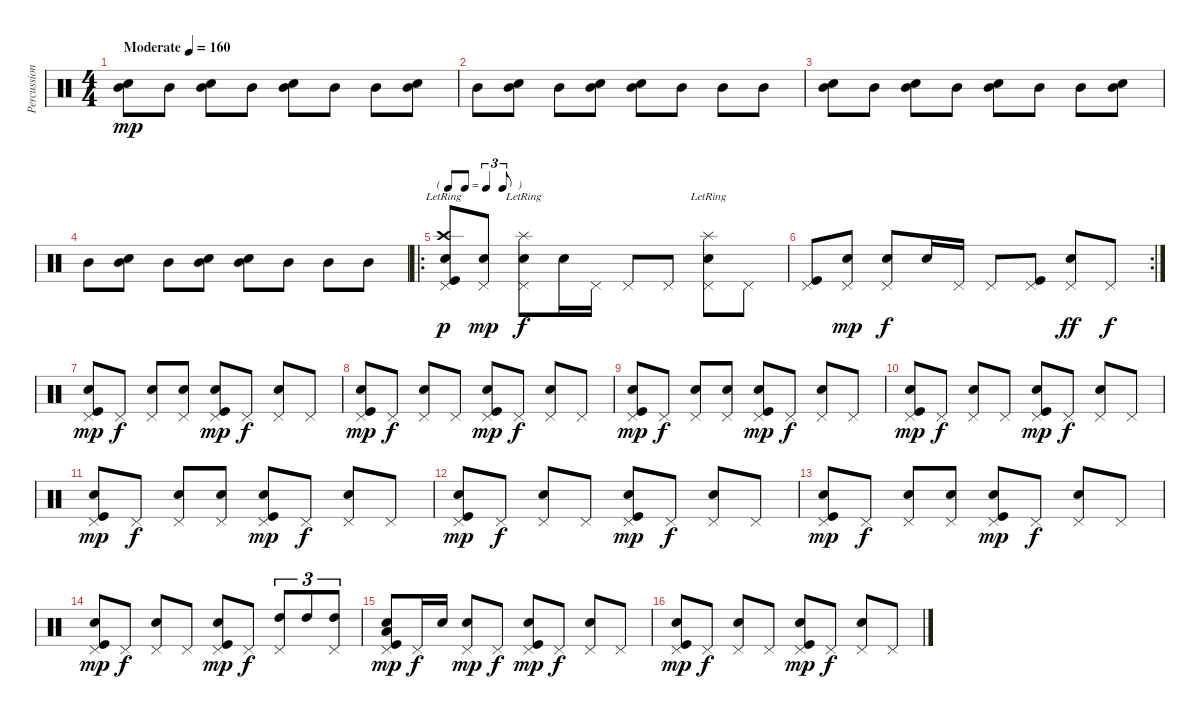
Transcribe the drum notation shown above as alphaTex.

\track ("Percussions" "Percussion") {instrument percussion}
\staff {score}
\articulation defaults
\ts (4 4)
\tempo (160 "Moderate")
\clef neutral
\ks c
("Mid Tom (hit)" "Snare (hit) 2").8{dy mp} "Mid Tom (hit)".8 ("Mid Tom (hit)" "Snare (hit) 2").8 "Mid Tom (hit)".8 ("Mid Tom (hit)" "Snare (hit) 2").8 "Mid Tom (hit)".8 "Mid Tom (hit)".8 ("Mid Tom (hit)" "Snare (hit) 2").8 |
"Mid Tom (hit)".8 ("Mid Tom (hit)" "Snare (hit) 2").8 "Mid Tom (hit)".8 ("Mid Tom (hit)" "Snare (hit) 2").8 ("Mid Tom (hit)" "Snare (hit) 2").8 "Mid Tom (hit)".8 "Mid Tom (hit)".8 "Mid Tom (hit)".8 |
("Mid Tom (hit)" "Snare (hit) 2").8 "Mid Tom (hit)".8 ("Mid Tom (hit)" "Snare (hit) 2").8 "Mid Tom (hit)".8 ("Mid Tom (hit)" "Snare (hit) 2").8 "Mid Tom (hit)".8 "Mid Tom (hit)".8 ("Mid Tom (hit)" "Snare (hit) 2").8 |
"Mid Tom (hit)".8 ("Mid Tom (hit)" "Snare (hit) 2").8 "Mid Tom (hit)".8 ("Mid Tom (hit)" "Snare (hit) 2").8 ("Mid Tom (hit)" "Snare (hit) 2").8 "Mid Tom (hit)".8 "Mid Tom (hit)".8 "Mid Tom (hit)".8 |
\ro
\tf triplet8th
("Pedal Hi-Hat (hit)" "Crash high (hit)"{lr} "Snare (hit) 2" "Kick (hit)").8{dy p} ("Pedal Hi-Hat (hit)" "Snare (hit) 2").8{dy mp} ("Pedal Hi-Hat (hit)" "Splash (hit)"{lr} "Snare (hit) 2").8{dy f} "Snare (hit) 2".16 "Pedal Hi-Hat (hit)".16 "Pedal Hi-Hat (hit)".8 "Pedal Hi-Hat (hit)".8 ("Pedal Hi-Hat (hit)" "Splash (hit)"{lr} "Snare (hit) 2").8 "Pedal Hi-Hat (hit)".8 |
\rc 2
("Pedal Hi-Hat (hit)" "Kick (hit)").8 ("Pedal Hi-Hat (hit)" "Snare (hit) 2").8{dy mp} ("Pedal Hi-Hat (hit)" "Snare (hit) 2").8{dy f} "Snare (hit) 2".16 "Pedal Hi-Hat (hit)".16 "Pedal Hi-Hat (hit)".8 ("Pedal Hi-Hat (hit)" "Kick (hit)").8 ("Pedal Hi-Hat (hit)" "Snare (hit) 2").8{dy ff} "Pedal Hi-Hat (hit)".8{dy f} |
("Pedal Hi-Hat (hit)" "Snare (hit) 2" "Kick (hit)").8{dy mp} "Pedal Hi-Hat (hit)".8{dy f} ("Pedal Hi-Hat (hit)" "Snare (hit) 2").8 ("Pedal Hi-Hat (hit)" "Snare (hit) 2").8 ("Pedal Hi-Hat (hit)" "Snare (hit) 2" "Kick (hit)").8{dy mp} "Pedal Hi-Hat (hit)".8{dy f} ("Pedal Hi-Hat (hit)" "Snare (hit) 2").8 "Pedal Hi-Hat (hit)".8 |
("Pedal Hi-Hat (hit)" "Snare (hit) 2" "Kick (hit)").8{dy mp} "Pedal Hi-Hat (hit)".8{dy f} ("Pedal Hi-Hat (hit)" "Snare (hit) 2").8 "Pedal Hi-Hat (hit)".8 ("Pedal Hi-Hat (hit)" "Snare (hit) 2" "Kick (hit)").8{dy mp} "Pedal Hi-Hat (hit)".8{dy f} ("Pedal Hi-Hat (hit)" "Snare (hit) 2").8 "Pedal Hi-Hat (hit)".8 |
("Pedal Hi-Hat (hit)" "Snare (hit) 2" "Kick (hit)").8{dy mp} "Pedal Hi-Hat (hit)".8{dy f} ("Pedal Hi-Hat (hit)" "Snare (hit) 2").8 ("Pedal Hi-Hat (hit)" "Snare (hit) 2").8 ("Pedal Hi-Hat (hit)" "Snare (hit) 2" "Kick (hit)").8{dy mp} "Pedal Hi-Hat (hit)".8{dy f} ("Pedal Hi-Hat (hit)" "Snare (hit) 2").8 "Pedal Hi-Hat (hit)".8 |
("Pedal Hi-Hat (hit)" "Snare (hit) 2" "Kick (hit)").8{dy mp} "Pedal Hi-Hat (hit)".8{dy f} ("Pedal Hi-Hat (hit)" "Snare (hit) 2").8 "Pedal Hi-Hat (hit)".8 ("Pedal Hi-Hat (hit)" "Snare (hit) 2" "Kick (hit)").8{dy mp} "Pedal Hi-Hat (hit)".8{dy f} ("Pedal Hi-Hat (hit)" "Snare (hit) 2").8 "Pedal Hi-Hat (hit)".8 |
("Pedal Hi-Hat (hit)" "Snare (hit) 2" "Kick (hit)").8{dy mp} "Pedal Hi-Hat (hit)".8{dy f} ("Pedal Hi-Hat (hit)" "Snare (hit) 2").8 ("Pedal Hi-Hat (hit)" "Snare (hit) 2").8 ("Pedal Hi-Hat (hit)" "Snare (hit) 2" "Kick (hit)").8{dy mp} "Pedal Hi-Hat (hit)".8{dy f} ("Pedal Hi-Hat (hit)" "Snare (hit) 2").8 "Pedal Hi-Hat (hit)".8 |
("Pedal Hi-Hat (hit)" "Snare (hit) 2" "Kick (hit)").8{dy mp} "Pedal Hi-Hat (hit)".8{dy f} ("Pedal Hi-Hat (hit)" "Snare (hit) 2").8 "Pedal Hi-Hat (hit)".8 ("Pedal Hi-Hat (hit)" "Snare (hit) 2" "Kick (hit)").8{dy mp} "Pedal Hi-Hat (hit)".8{dy f} ("Pedal Hi-Hat (hit)" "Snare (hit) 2").8 "Pedal Hi-Hat (hit)".8 |
("Pedal Hi-Hat (hit)" "Snare (hit) 2" "Kick (hit)").8{dy mp} "Pedal Hi-Hat (hit)".8{dy f} ("Pedal Hi-Hat (hit)" "Snare (hit) 2").8 ("Pedal Hi-Hat (hit)" "Snare (hit) 2").8 ("Pedal Hi-Hat (hit)" "Snare (hit) 2" "Kick (hit)").8{dy mp} "Pedal Hi-Hat (hit)".8{dy f} ("Pedal Hi-Hat (hit)" "Snare (hit) 2").8 "Pedal Hi-Hat (hit)".8 |
("Pedal Hi-Hat (hit)" "Snare (hit) 2" "Kick (hit)").8{dy mp} "Pedal Hi-Hat (hit)".8{dy f} ("Pedal Hi-Hat (hit)" "Snare (hit) 2").8 "Pedal Hi-Hat (hit)".8 ("Pedal Hi-Hat (hit)" "Snare (hit) 2" "Kick (hit)").8{dy mp} "Pedal Hi-Hat (hit)".8{dy f} ("Pedal Hi-Hat (hit)" "High Tom (hit)").8{tu (3 2)} "High Tom (hit)".8{tu (3 2)} ("Pedal Hi-Hat (hit)" "High Tom (hit)").8{tu (3 2)} |
("Pedal Hi-Hat (hit)" "Snare (hit) 2" "Low Tom (hit)" "Kick (hit)").8{dy mp} "Pedal Hi-Hat (hit)".16{dy f} "Snare (hit) 2".16 ("Pedal Hi-Hat (hit)" "Snare (hit) 2").8{dy mp} "Pedal Hi-Hat (hit)".8{dy f} ("Pedal Hi-Hat (hit)" "Snare (hit) 2" "Kick (hit)").8{dy mp} "Pedal Hi-Hat (hit)".8{dy f} ("Pedal Hi-Hat (hit)" "Snare (hit) 2").8 "Pedal Hi-Hat (hit)".8 |
("Pedal Hi-Hat (hit)" "Snare (hit) 2" "Kick (hit)").8{dy mp} "Pedal Hi-Hat (hit)".8{dy f} ("Pedal Hi-Hat (hit)" "Snare (hit) 2").8 "Pedal Hi-Hat (hit)".8 ("Pedal Hi-Hat (hit)" "Snare (hit) 2" "Kick (hit)").8{dy mp} "Pedal Hi-Hat (hit)".8{dy f} ("Pedal Hi-Hat (hit)" "Snare (hit) 2").8 "Pedal Hi-Hat (hit)".8
